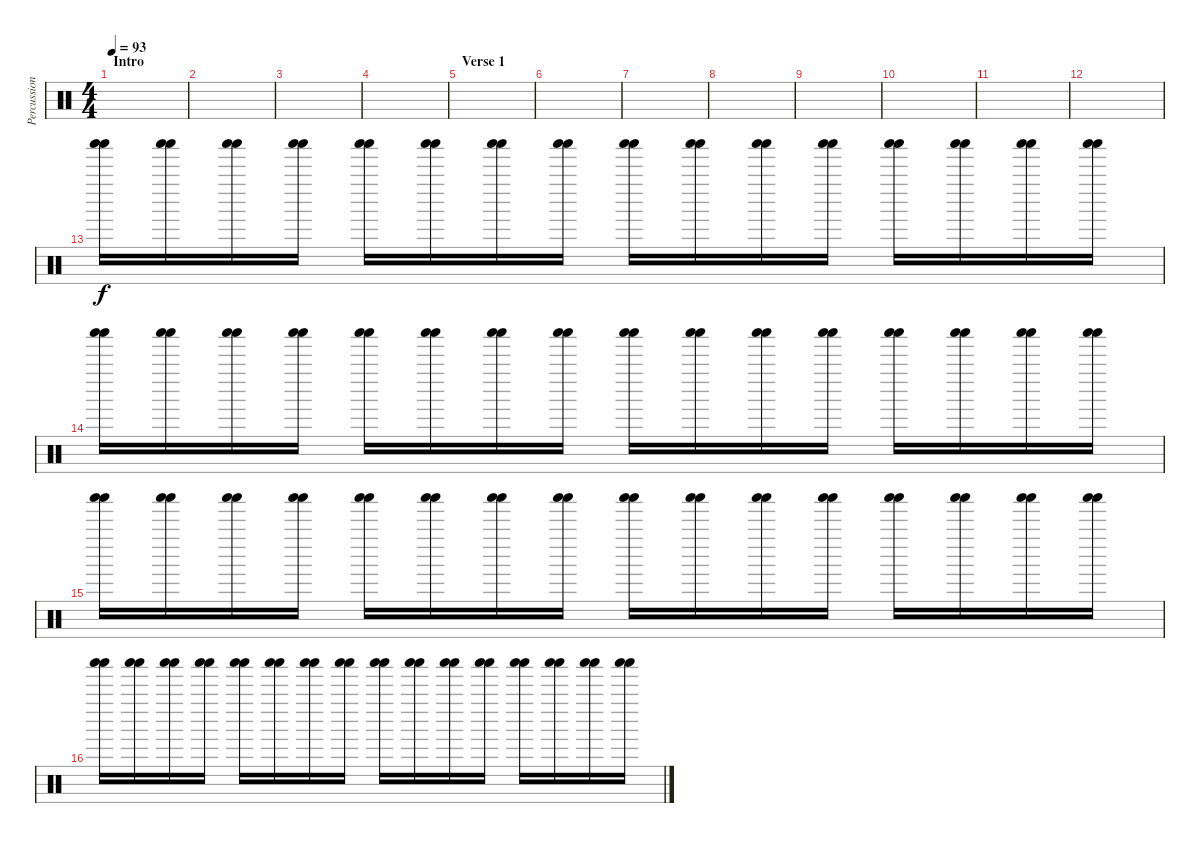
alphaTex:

\track ("Percussions" "Percussion") {instrument percussion}
\staff {score}
\articulation defaults
\ts (4 4)
\section ("" "Intro")
\tempo 93
\clef neutral
\ks c
|
|
|
|
\section ("" "Verse 1")
|
|
|
|
|
|
|
|
("Shaker (hit)" "Shaker (hit)").16 ("Shaker (hit)" "Shaker (hit)").16 ("Shaker (hit)" "Shaker (hit)").16 ("Shaker (hit)" "Shaker (hit)").16 ("Shaker (hit)" "Shaker (hit)").16 ("Shaker (hit)" "Shaker (hit)").16 ("Shaker (hit)" "Shaker (hit)").16 ("Shaker (hit)" "Shaker (hit)").16 ("Shaker (hit)" "Shaker (hit)").16 ("Shaker (hit)" "Shaker (hit)").16 ("Shaker (hit)" "Shaker (hit)").16 ("Shaker (hit)" "Shaker (hit)").16 ("Shaker (hit)" "Shaker (hit)").16 ("Shaker (hit)" "Shaker (hit)").16 ("Shaker (hit)" "Shaker (hit)").16 ("Shaker (hit)" "Shaker (hit)").16 |
("Shaker (hit)" "Shaker (hit)").16 ("Shaker (hit)" "Shaker (hit)").16 ("Shaker (hit)" "Shaker (hit)").16 ("Shaker (hit)" "Shaker (hit)").16 ("Shaker (hit)" "Shaker (hit)").16 ("Shaker (hit)" "Shaker (hit)").16 ("Shaker (hit)" "Shaker (hit)").16 ("Shaker (hit)" "Shaker (hit)").16 ("Shaker (hit)" "Shaker (hit)").16 ("Shaker (hit)" "Shaker (hit)").16 ("Shaker (hit)" "Shaker (hit)").16 ("Shaker (hit)" "Shaker (hit)").16 ("Shaker (hit)" "Shaker (hit)").16 ("Shaker (hit)" "Shaker (hit)").16 ("Shaker (hit)" "Shaker (hit)").16 ("Shaker (hit)" "Shaker (hit)").16 |
("Shaker (hit)" "Shaker (hit)").16 ("Shaker (hit)" "Shaker (hit)").16 ("Shaker (hit)" "Shaker (hit)").16 ("Shaker (hit)" "Shaker (hit)").16 ("Shaker (hit)" "Shaker (hit)").16 ("Shaker (hit)" "Shaker (hit)").16 ("Shaker (hit)" "Shaker (hit)").16 ("Shaker (hit)" "Shaker (hit)").16 ("Shaker (hit)" "Shaker (hit)").16 ("Shaker (hit)" "Shaker (hit)").16 ("Shaker (hit)" "Shaker (hit)").16 ("Shaker (hit)" "Shaker (hit)").16 ("Shaker (hit)" "Shaker (hit)").16 ("Shaker (hit)" "Shaker (hit)").16 ("Shaker (hit)" "Shaker (hit)").16 ("Shaker (hit)" "Shaker (hit)").16 |
("Shaker (hit)" "Shaker (hit)").16 ("Shaker (hit)" "Shaker (hit)").16 ("Shaker (hit)" "Shaker (hit)").16 ("Shaker (hit)" "Shaker (hit)").16 ("Shaker (hit)" "Shaker (hit)").16 ("Shaker (hit)" "Shaker (hit)").16 ("Shaker (hit)" "Shaker (hit)").16 ("Shaker (hit)" "Shaker (hit)").16 ("Shaker (hit)" "Shaker (hit)").16 ("Shaker (hit)" "Shaker (hit)").16 ("Shaker (hit)" "Shaker (hit)").16 ("Shaker (hit)" "Shaker (hit)").16 ("Shaker (hit)" "Shaker (hit)").16 ("Shaker (hit)" "Shaker (hit)").16 ("Shaker (hit)" "Shaker (hit)").16 ("Shaker (hit)" "Shaker (hit)").16
